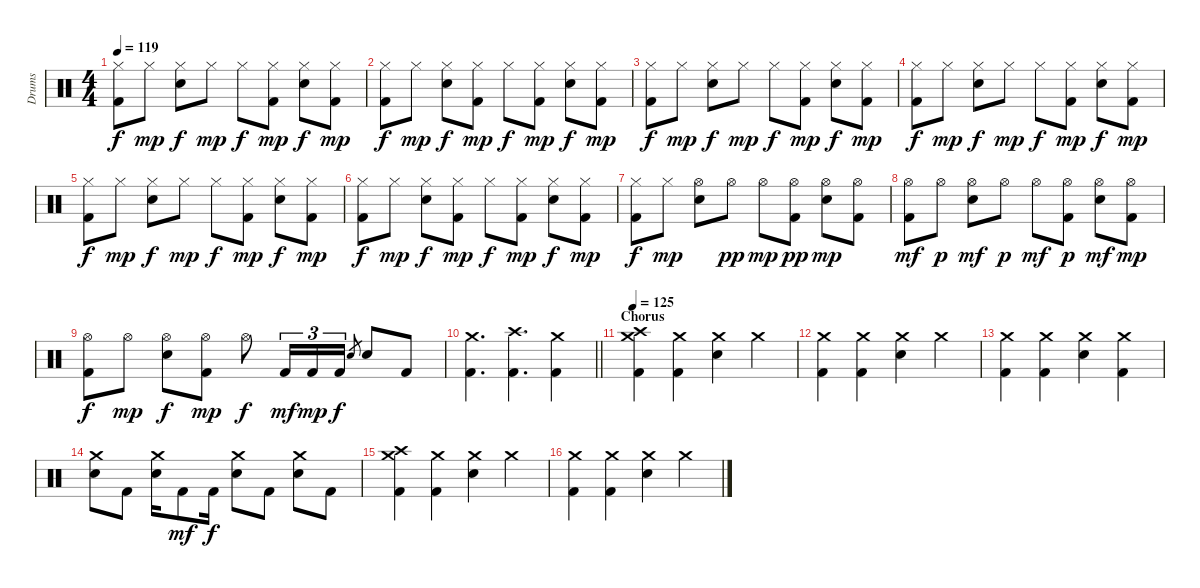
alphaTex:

\track ("Drums" "Drums") {instrument percussion}
\staff {score}
\articulation defaults
\ts (4 4)
\tempo 119
\clef neutral
\ks c
("Hi-Hat (closed)" "Kick (hit) 2").8{dy f} "Hi-Hat (closed)".8{dy mp} ("Hi-Hat (closed)" "Electric Snare (hit)").8{dy f} "Hi-Hat (closed)".8{dy mp} "Hi-Hat (closed)".8{dy f} ("Hi-Hat (closed)" "Kick (hit) 2").8{dy mp} ("Hi-Hat (closed)" "Electric Snare (hit)").8{dy f} ("Hi-Hat (closed)" "Kick (hit) 2").8{dy mp} |
("Hi-Hat (closed)" "Kick (hit) 2").8{dy f} "Hi-Hat (closed)".8{dy mp} ("Hi-Hat (closed)" "Electric Snare (hit)").8{dy f} ("Hi-Hat (closed)" "Kick (hit) 2").8{dy mp} "Hi-Hat (closed)".8{dy f} ("Hi-Hat (closed)" "Kick (hit) 2").8{dy mp} ("Hi-Hat (closed)" "Electric Snare (hit)").8{dy f} ("Hi-Hat (closed)" "Kick (hit) 2").8{dy mp} |
("Hi-Hat (closed)" "Kick (hit) 2").8{dy f} "Hi-Hat (closed)".8{dy mp} ("Hi-Hat (closed)" "Electric Snare (hit)").8{dy f} "Hi-Hat (closed)".8{dy mp} "Hi-Hat (closed)".8{dy f} ("Hi-Hat (closed)" "Kick (hit) 2").8{dy mp} ("Hi-Hat (closed)" "Electric Snare (hit)").8{dy f} ("Hi-Hat (closed)" "Kick (hit) 2").8{dy mp} |
("Hi-Hat (closed)" "Kick (hit) 2").8{dy f} "Hi-Hat (closed)".8{dy mp} ("Hi-Hat (closed)" "Electric Snare (hit)").8{dy f} "Hi-Hat (closed)".8{dy mp} "Hi-Hat (closed)".8{dy f} ("Hi-Hat (closed)" "Kick (hit) 2").8{dy mp} ("Hi-Hat (closed)" "Electric Snare (hit)").8{dy f} ("Hi-Hat (closed)" "Kick (hit) 2").8{dy mp} |
("Hi-Hat (closed)" "Kick (hit) 2").8{dy f} "Hi-Hat (closed)".8{dy mp} ("Hi-Hat (closed)" "Electric Snare (hit)").8{dy f} "Hi-Hat (closed)".8{dy mp} "Hi-Hat (closed)".8{dy f} ("Hi-Hat (closed)" "Kick (hit) 2").8{dy mp} ("Hi-Hat (closed)" "Electric Snare (hit)").8{dy f} ("Hi-Hat (closed)" "Kick (hit) 2").8{dy mp} |
("Hi-Hat (closed)" "Kick (hit) 2").8{dy f} "Hi-Hat (closed)".8{dy mp} ("Hi-Hat (closed)" "Electric Snare (hit)").8{dy f} ("Hi-Hat (closed)" "Kick (hit) 2").8{dy mp} "Hi-Hat (closed)".8{dy f} ("Hi-Hat (closed)" "Kick (hit) 2").8{dy mp} ("Hi-Hat (closed)" "Electric Snare (hit)").8{dy f} ("Hi-Hat (closed)" "Kick (hit) 2").8{dy mp} |
("Hi-Hat (closed)" "Kick (hit) 2").8{dy f} "Hi-Hat (closed)".8{dy mp} ("Hi-Hat (open)" "Electric Snare (hit)").8 "Hi-Hat (open)".8{dy pp} "Hi-Hat (open)".8{dy mp} ("Hi-Hat (open)" "Kick (hit) 2").8{dy pp} ("Hi-Hat (open)" "Electric Snare (hit)").8{dy mp} ("Hi-Hat (open)" "Kick (hit) 2").8 |
("Hi-Hat (open)" "Kick (hit) 2").8{dy mf} "Hi-Hat (open)".8{dy p} ("Hi-Hat (open)" "Electric Snare (hit)").8{dy mf} "Hi-Hat (open)".8{dy p} "Hi-Hat (open)".8{dy mf} ("Hi-Hat (open)" "Kick (hit) 2").8{dy p} ("Hi-Hat (open)" "Electric Snare (hit)").8{dy mf} ("Hi-Hat (open)" "Kick (hit) 2").8{dy mp} |
("Hi-Hat (open)" "Kick (hit) 2").8{dy f} "Hi-Hat (open)".8{dy mp} ("Hi-Hat (open)" "Electric Snare (hit)").8{dy f} ("Hi-Hat (open)" "Kick (hit) 2").8{dy mp} "Hi-Hat (open)".8{dy f} "Kick (hit) 2".16{tu (3 2) dy mf} "Kick (hit) 2".16{tu (3 2) dy mp} "Kick (hit) 2".16{tu (3 2) dy f} "Electric Snare (hit)".8{gr} "Electric Snare (hit)".8 "Kick (hit) 2".8 |
\barLineRight lightlight
("Crash medium (hit)" "Kick (hit) 2").4{d} ("Crash high (hit)" "Kick (hit) 2").4{d} ("Crash medium (hit)" "Kick (hit) 2").4 |
\section ("" "Chorus")
\tempo 125
("Crash medium (hit)" "Crash high (hit)" "Kick (hit) 2").4 ("Crash medium (hit)" "Kick (hit) 2").4 ("Crash medium (hit)" "Electric Snare (hit)").4 "Crash medium (hit)".4 |
("Crash medium (hit)" "Kick (hit) 2").4 ("Crash medium (hit)" "Kick (hit) 2").4 ("Crash medium (hit)" "Electric Snare (hit)").4 "Crash medium (hit)".4 |
("Crash medium (hit)" "Kick (hit) 2").4 ("Crash medium (hit)" "Kick (hit) 2").4 ("Crash medium (hit)" "Electric Snare (hit)").4 ("Crash medium (hit)" "Kick (hit) 2").4 |
("Crash medium (hit)" "Electric Snare (hit)").8 "Kick (hit) 2".8 ("Crash medium (hit)" "Electric Snare (hit)").16 "Kick (hit) 2".8{dy mf} "Kick (hit) 2".16{dy f} ("Crash medium (hit)" "Electric Snare (hit)").8 "Kick (hit) 2".8 ("Crash medium (hit)" "Electric Snare (hit)").8 "Kick (hit) 2".8 |
("Crash medium (hit)" "Crash high (hit)" "Kick (hit) 2").4 ("Crash medium (hit)" "Kick (hit) 2").4 ("Crash medium (hit)" "Electric Snare (hit)").4 "Crash medium (hit)".4 |
("Crash medium (hit)" "Kick (hit) 2").4 ("Crash medium (hit)" "Kick (hit) 2").4 ("Crash medium (hit)" "Electric Snare (hit)").4 "Crash medium (hit)".4
